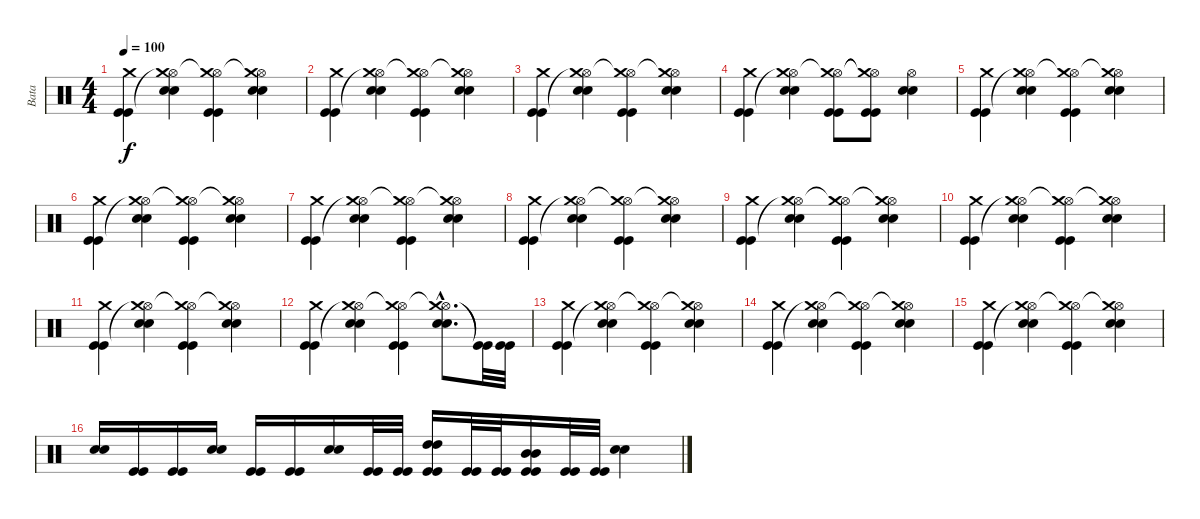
\track ("Bata" "Bata") {instrument percussion}
\staff {score}
\articulation defaults
\ts (4 4)
\tempo 100
\clef neutral
\ks c
("Crash medium (hit)" "Kick (hit)" "Kick (hit)").4{dy f} ("Hi-Hat (open)" "Crash medium (hit)"{t} "Electric Snare (hit)" "Electric Snare (hit)").4 ("Hi-Hat (open)" "Crash medium (hit)"{t} "Kick (hit)" "Kick (hit)").4 ("Hi-Hat (open)" "Crash medium (hit)"{t} "Electric Snare (hit)" "Electric Snare (hit)").4 |
("Crash medium (hit)" "Kick (hit)" "Kick (hit)").4 ("Hi-Hat (open)" "Crash medium (hit)"{t} "Electric Snare (hit)" "Electric Snare (hit)").4 ("Hi-Hat (open)" "Crash medium (hit)"{t} "Kick (hit)" "Kick (hit)").4 ("Hi-Hat (open)" "Crash medium (hit)"{t} "Electric Snare (hit)" "Electric Snare (hit)").4 |
("Crash medium (hit)" "Kick (hit)" "Kick (hit)").4 ("Hi-Hat (open)" "Crash medium (hit)"{t} "Electric Snare (hit)" "Electric Snare (hit)").4 ("Hi-Hat (open)" "Crash medium (hit)"{t} "Kick (hit)" "Kick (hit)").4 ("Hi-Hat (open)" "Crash medium (hit)"{t} "Electric Snare (hit)" "Electric Snare (hit)").4 |
("Crash medium (hit)" "Kick (hit)" "Kick (hit)").4 ("Hi-Hat (open)" "Crash medium (hit)"{t} "Electric Snare (hit)" "Electric Snare (hit)").4 ("Hi-Hat (open)" "Crash medium (hit)"{t} "Kick (hit)" "Kick (hit)").8 ("Hi-Hat (open)"{t} "Crash medium (hit)"{t} "Kick (hit)" "Kick (hit)").8 ("Hi-Hat (open)" "Electric Snare (hit)" "Electric Snare (hit)").4 |
("Crash medium (hit)" "Kick (hit)" "Kick (hit)").4 ("Hi-Hat (open)" "Crash medium (hit)"{t} "Electric Snare (hit)" "Electric Snare (hit)").4 ("Hi-Hat (open)" "Crash medium (hit)"{t} "Kick (hit)" "Kick (hit)").4 ("Hi-Hat (open)" "Crash medium (hit)"{t} "Electric Snare (hit)" "Electric Snare (hit)").4 |
("Crash medium (hit)" "Kick (hit)" "Kick (hit)").4 ("Hi-Hat (open)" "Crash medium (hit)"{t} "Electric Snare (hit)" "Electric Snare (hit)").4 ("Hi-Hat (open)" "Crash medium (hit)"{t} "Kick (hit)" "Kick (hit)").4 ("Hi-Hat (open)" "Crash medium (hit)"{t} "Electric Snare (hit)" "Electric Snare (hit)").4 |
("Crash medium (hit)" "Kick (hit)" "Kick (hit)").4 ("Hi-Hat (open)" "Crash medium (hit)"{t} "Electric Snare (hit)" "Electric Snare (hit)").4 ("Hi-Hat (open)" "Crash medium (hit)"{t} "Kick (hit)" "Kick (hit)").4 ("Hi-Hat (open)" "Crash medium (hit)"{t} "Electric Snare (hit)" "Electric Snare (hit)").4 |
("Crash medium (hit)" "Kick (hit)" "Kick (hit)").4 ("Hi-Hat (open)" "Crash medium (hit)"{t} "Electric Snare (hit)" "Electric Snare (hit)").4 ("Hi-Hat (open)" "Crash medium (hit)"{t} "Kick (hit)" "Kick (hit)").4 ("Hi-Hat (open)" "Crash medium (hit)"{t} "Electric Snare (hit)" "Electric Snare (hit)").4 |
("Crash medium (hit)" "Kick (hit)" "Kick (hit)").4 ("Hi-Hat (open)" "Crash medium (hit)"{t} "Electric Snare (hit)" "Electric Snare (hit)").4 ("Hi-Hat (open)" "Crash medium (hit)"{t} "Kick (hit)" "Kick (hit)").4 ("Hi-Hat (open)" "Crash medium (hit)"{t} "Electric Snare (hit)" "Electric Snare (hit)").4 |
("Crash medium (hit)" "Kick (hit)" "Kick (hit)").4 ("Hi-Hat (open)" "Crash medium (hit)"{t} "Electric Snare (hit)" "Electric Snare (hit)").4 ("Hi-Hat (open)" "Crash medium (hit)"{t} "Kick (hit)" "Kick (hit)").4 ("Hi-Hat (open)" "Crash medium (hit)"{t} "Electric Snare (hit)" "Electric Snare (hit)").4 |
("Crash medium (hit)" "Kick (hit)" "Kick (hit)").4 ("Hi-Hat (open)" "Crash medium (hit)"{t} "Electric Snare (hit)" "Electric Snare (hit)").4 ("Hi-Hat (open)" "Crash medium (hit)"{t} "Kick (hit)" "Kick (hit)").4 ("Hi-Hat (open)" "Crash medium (hit)"{t} "Electric Snare (hit)" "Electric Snare (hit)").4 |
("Crash medium (hit)" "Kick (hit)" "Kick (hit)").4 ("Hi-Hat (open)" "Crash medium (hit)"{t} "Electric Snare (hit)" "Electric Snare (hit)").4 ("Hi-Hat (open)" "Crash medium (hit)"{t} "Kick (hit)" "Kick (hit)").4 ("Hi-Hat (open)"{hac} "Crash medium (hit)"{hac t} "Electric Snare (hit)"{hac} "Electric Snare (hit)"{hac}).8{d} ("Kick (hit)"{t} "Kick (hit)"{t}).32 ("Kick (hit)" "Kick (hit)").32 |
("Crash medium (hit)" "Kick (hit)" "Kick (hit)").4 ("Hi-Hat (open)" "Crash medium (hit)"{t} "Electric Snare (hit)" "Electric Snare (hit)").4 ("Hi-Hat (open)" "Crash medium (hit)"{t} "Kick (hit)" "Kick (hit)").4 ("Hi-Hat (open)" "Crash medium (hit)"{t} "Electric Snare (hit)" "Electric Snare (hit)").4 |
("Crash medium (hit)" "Kick (hit)" "Kick (hit)").4 ("Hi-Hat (open)" "Crash medium (hit)"{t} "Electric Snare (hit)" "Electric Snare (hit)").4 ("Hi-Hat (open)" "Crash medium (hit)"{t} "Kick (hit)" "Kick (hit)").4 ("Hi-Hat (open)" "Crash medium (hit)"{t} "Electric Snare (hit)" "Electric Snare (hit)").4 |
("Crash medium (hit)" "Kick (hit)" "Kick (hit)").4 ("Hi-Hat (open)" "Crash medium (hit)"{t} "Electric Snare (hit)" "Electric Snare (hit)").4 ("Hi-Hat (open)" "Crash medium (hit)"{t} "Kick (hit)" "Kick (hit)").4 ("Hi-Hat (open)" "Crash medium (hit)"{t} "Electric Snare (hit)" "Electric Snare (hit)").4 |
("Electric Snare (hit)" "Electric Snare (hit)").16 ("Kick (hit)" "Kick (hit)").16 ("Kick (hit)" "Kick (hit)").16 ("Electric Snare (hit)" "Electric Snare (hit)").16 ("Kick (hit)" "Kick (hit)").16 ("Kick (hit)" "Kick (hit)").16 ("Electric Snare (hit)" "Electric Snare (hit)").16 ("Kick (hit)" "Kick (hit)").32 ("Kick (hit)" "Kick (hit)").32 ("High Tom (hit)" "High Tom (hit)" "Kick (hit)" "Kick (hit)").16 ("Kick (hit)" "Kick (hit)").32 ("Kick (hit)" "Kick (hit)").32 ("Mid Tom (hit)" "Mid Tom (hit)" "Kick (hit)" "Kick (hit)").16 ("Kick (hit)" "Kick (hit)").32 ("Kick (hit)" "Kick (hit)").32 ("Electric Snare (hit)" "Electric Snare (hit)").4
